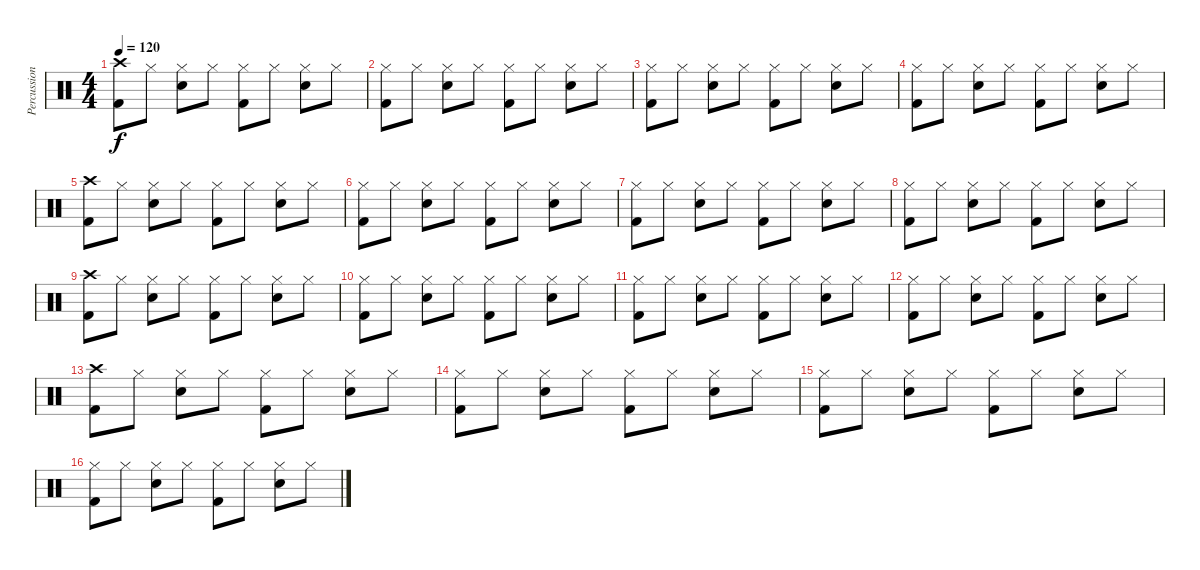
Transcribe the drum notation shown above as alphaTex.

\track ("Percussion" "Percussion") {instrument percussion}
\staff {score}
\articulation defaults
\ts (4 4)
\tempo 120
\clef neutral
\ks c
("Crash high (hit)" "Kick (hit) 2").8{dy f} "Hi-Hat (closed)".8 ("Hi-Hat (closed)" "Electric Snare (hit)").8 "Hi-Hat (closed)".8 ("Hi-Hat (closed)" "Kick (hit) 2").8 "Hi-Hat (closed)".8 ("Hi-Hat (closed)" "Electric Snare (hit)").8 "Hi-Hat (closed)".8 |
("Hi-Hat (closed)" "Kick (hit) 2").8 "Hi-Hat (closed)".8 ("Hi-Hat (closed)" "Electric Snare (hit)").8 "Hi-Hat (closed)".8 ("Hi-Hat (closed)" "Kick (hit) 2").8 "Hi-Hat (closed)".8 ("Hi-Hat (closed)" "Electric Snare (hit)").8 "Hi-Hat (closed)".8 |
("Hi-Hat (closed)" "Kick (hit) 2").8 "Hi-Hat (closed)".8 ("Hi-Hat (closed)" "Electric Snare (hit)").8 "Hi-Hat (closed)".8 ("Hi-Hat (closed)" "Kick (hit) 2").8 "Hi-Hat (closed)".8 ("Hi-Hat (closed)" "Electric Snare (hit)").8 "Hi-Hat (closed)".8 |
("Hi-Hat (closed)" "Kick (hit) 2").8 "Hi-Hat (closed)".8 ("Hi-Hat (closed)" "Electric Snare (hit)").8 "Hi-Hat (closed)".8 ("Hi-Hat (closed)" "Kick (hit) 2").8 "Hi-Hat (closed)".8 ("Hi-Hat (closed)" "Electric Snare (hit)").8 "Hi-Hat (closed)".8 |
("Crash high (hit)" "Kick (hit) 2").8 "Hi-Hat (closed)".8 ("Hi-Hat (closed)" "Electric Snare (hit)").8 "Hi-Hat (closed)".8 ("Hi-Hat (closed)" "Kick (hit) 2").8 "Hi-Hat (closed)".8 ("Hi-Hat (closed)" "Electric Snare (hit)").8 "Hi-Hat (closed)".8 |
("Hi-Hat (closed)" "Kick (hit) 2").8 "Hi-Hat (closed)".8 ("Hi-Hat (closed)" "Electric Snare (hit)").8 "Hi-Hat (closed)".8 ("Hi-Hat (closed)" "Kick (hit) 2").8 "Hi-Hat (closed)".8 ("Hi-Hat (closed)" "Electric Snare (hit)").8 "Hi-Hat (closed)".8 |
("Hi-Hat (closed)" "Kick (hit) 2").8 "Hi-Hat (closed)".8 ("Hi-Hat (closed)" "Electric Snare (hit)").8 "Hi-Hat (closed)".8 ("Hi-Hat (closed)" "Kick (hit) 2").8 "Hi-Hat (closed)".8 ("Hi-Hat (closed)" "Electric Snare (hit)").8 "Hi-Hat (closed)".8 |
("Hi-Hat (closed)" "Kick (hit) 2").8 "Hi-Hat (closed)".8 ("Hi-Hat (closed)" "Electric Snare (hit)").8 "Hi-Hat (closed)".8 ("Hi-Hat (closed)" "Kick (hit) 2").8 "Hi-Hat (closed)".8 ("Hi-Hat (closed)" "Electric Snare (hit)").8 "Hi-Hat (closed)".8 |
("Crash high (hit)" "Kick (hit) 2").8 "Hi-Hat (closed)".8 ("Hi-Hat (closed)" "Electric Snare (hit)").8 "Hi-Hat (closed)".8 ("Hi-Hat (closed)" "Kick (hit) 2").8 "Hi-Hat (closed)".8 ("Hi-Hat (closed)" "Electric Snare (hit)").8 "Hi-Hat (closed)".8 |
("Hi-Hat (closed)" "Kick (hit) 2").8 "Hi-Hat (closed)".8 ("Hi-Hat (closed)" "Electric Snare (hit)").8 "Hi-Hat (closed)".8 ("Hi-Hat (closed)" "Kick (hit) 2").8 "Hi-Hat (closed)".8 ("Hi-Hat (closed)" "Electric Snare (hit)").8 "Hi-Hat (closed)".8 |
("Hi-Hat (closed)" "Kick (hit) 2").8 "Hi-Hat (closed)".8 ("Hi-Hat (closed)" "Electric Snare (hit)").8 "Hi-Hat (closed)".8 ("Hi-Hat (closed)" "Kick (hit) 2").8 "Hi-Hat (closed)".8 ("Hi-Hat (closed)" "Electric Snare (hit)").8 "Hi-Hat (closed)".8 |
("Hi-Hat (closed)" "Kick (hit) 2").8 "Hi-Hat (closed)".8 ("Hi-Hat (closed)" "Electric Snare (hit)").8 "Hi-Hat (closed)".8 ("Hi-Hat (closed)" "Kick (hit) 2").8 "Hi-Hat (closed)".8 ("Hi-Hat (closed)" "Electric Snare (hit)").8 "Hi-Hat (closed)".8 |
("Crash high (hit)" "Kick (hit) 2").8 "Hi-Hat (closed)".8 ("Hi-Hat (closed)" "Electric Snare (hit)").8 "Hi-Hat (closed)".8 ("Hi-Hat (closed)" "Kick (hit) 2").8 "Hi-Hat (closed)".8 ("Hi-Hat (closed)" "Electric Snare (hit)").8 "Hi-Hat (closed)".8 |
("Hi-Hat (closed)" "Kick (hit) 2").8 "Hi-Hat (closed)".8 ("Hi-Hat (closed)" "Electric Snare (hit)").8 "Hi-Hat (closed)".8 ("Hi-Hat (closed)" "Kick (hit) 2").8 "Hi-Hat (closed)".8 ("Hi-Hat (closed)" "Electric Snare (hit)").8 "Hi-Hat (closed)".8 |
("Hi-Hat (closed)" "Kick (hit) 2").8 "Hi-Hat (closed)".8 ("Hi-Hat (closed)" "Electric Snare (hit)").8 "Hi-Hat (closed)".8 ("Hi-Hat (closed)" "Kick (hit) 2").8 "Hi-Hat (closed)".8 ("Hi-Hat (closed)" "Electric Snare (hit)").8 "Hi-Hat (closed)".8 |
("Hi-Hat (closed)" "Kick (hit) 2").8 "Hi-Hat (closed)".8 ("Hi-Hat (closed)" "Electric Snare (hit)").8 "Hi-Hat (closed)".8 ("Hi-Hat (closed)" "Kick (hit) 2").8 "Hi-Hat (closed)".8 ("Hi-Hat (closed)" "Electric Snare (hit)").8 "Hi-Hat (closed)".8
